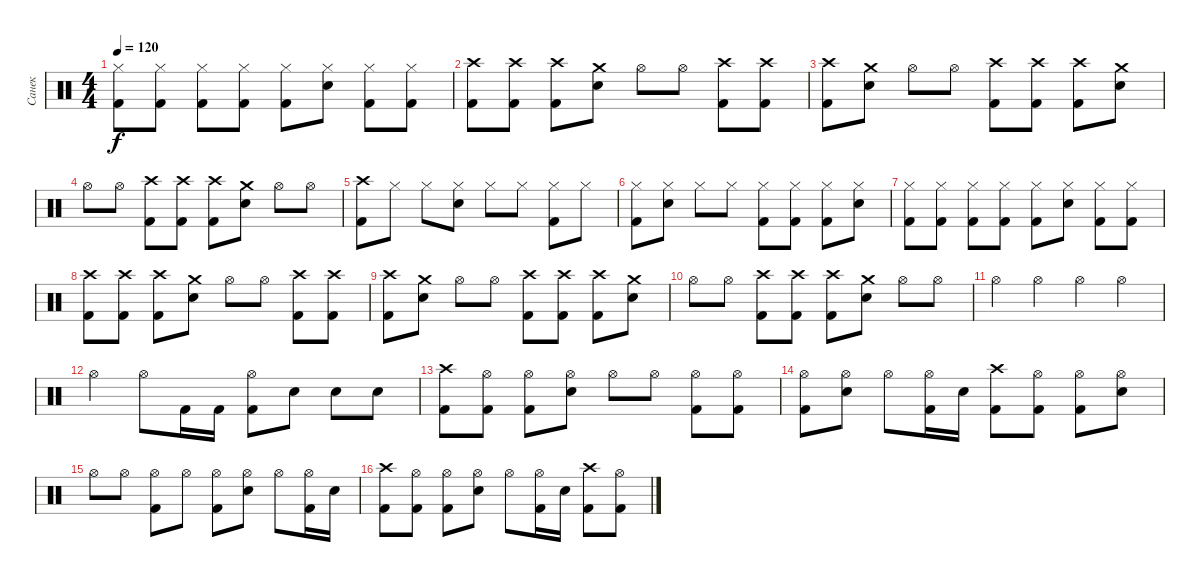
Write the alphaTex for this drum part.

\track ("Санек" "Санек") {instrument percussion}
\staff {score}
\articulation defaults
\ts (4 4)
\tempo 120
\clef neutral
\ks c
("Hi-Hat (closed)" "Kick (hit) 2").8{dy f} ("Hi-Hat (closed)" "Kick (hit) 2").8 ("Hi-Hat (closed)" "Kick (hit) 2").8 ("Hi-Hat (closed)" "Kick (hit) 2").8 ("Hi-Hat (closed)" "Kick (hit) 2").8 ("Hi-Hat (closed)" "Electric Snare (hit)").8 ("Hi-Hat (closed)" "Kick (hit) 2").8 ("Hi-Hat (closed)" "Kick (hit) 2").8 |
("Crash high (hit)" "Kick (hit) 2").8 ("Crash high (hit)" "Kick (hit) 2").8 ("Crash high (hit)" "Kick (hit) 2").8 ("Crash medium (hit)" "Electric Snare (hit)").8 "Hi-Hat (open)".8 "Hi-Hat (open)".8 ("Crash high (hit)" "Kick (hit) 2").8 ("Crash high (hit)" "Kick (hit) 2").8 |
("Crash high (hit)" "Kick (hit) 2").8 ("Crash medium (hit)" "Electric Snare (hit)").8 "Hi-Hat (open)".8 "Hi-Hat (open)".8 ("Crash high (hit)" "Kick (hit) 2").8 ("Crash high (hit)" "Kick (hit) 2").8 ("Crash high (hit)" "Kick (hit) 2").8 ("Crash medium (hit)" "Electric Snare (hit)").8 |
"Hi-Hat (open)".8 "Hi-Hat (open)".8 ("Crash high (hit)" "Kick (hit) 2").8 ("Crash high (hit)" "Kick (hit) 2").8 ("Crash high (hit)" "Kick (hit) 2").8 ("Crash medium (hit)" "Electric Snare (hit)").8 "Hi-Hat (open)".8 "Hi-Hat (open)".8 |
("Crash high (hit)" "Kick (hit) 2").8 "Hi-Hat (closed)".8 "Hi-Hat (closed)".8 ("Hi-Hat (closed)" "Electric Snare (hit)").8 "Hi-Hat (closed)".8 "Hi-Hat (closed)".8 ("Hi-Hat (closed)" "Kick (hit) 2").8 "Hi-Hat (closed)".8 |
("Hi-Hat (closed)" "Kick (hit) 2").8 ("Hi-Hat (closed)" "Electric Snare (hit)").8 "Hi-Hat (closed)".8 "Hi-Hat (closed)".8 ("Hi-Hat (closed)" "Kick (hit) 2").8 ("Hi-Hat (closed)" "Kick (hit) 2").8 ("Hi-Hat (closed)" "Kick (hit) 2").8 ("Hi-Hat (closed)" "Electric Snare (hit)").8 |
("Hi-Hat (closed)" "Kick (hit) 2").8 ("Hi-Hat (closed)" "Kick (hit) 2").8 ("Hi-Hat (closed)" "Kick (hit) 2").8 ("Hi-Hat (closed)" "Kick (hit) 2").8 ("Hi-Hat (closed)" "Kick (hit) 2").8 ("Hi-Hat (closed)" "Electric Snare (hit)").8 ("Hi-Hat (closed)" "Kick (hit) 2").8 ("Hi-Hat (closed)" "Kick (hit) 2").8 |
("Crash high (hit)" "Kick (hit) 2").8 ("Crash high (hit)" "Kick (hit) 2").8 ("Crash high (hit)" "Kick (hit) 2").8 ("Crash medium (hit)" "Electric Snare (hit)").8 "Hi-Hat (open)".8 "Hi-Hat (open)".8 ("Crash high (hit)" "Kick (hit) 2").8 ("Crash high (hit)" "Kick (hit) 2").8 |
("Crash high (hit)" "Kick (hit) 2").8 ("Crash medium (hit)" "Electric Snare (hit)").8 "Hi-Hat (open)".8 "Hi-Hat (open)".8 ("Crash high (hit)" "Kick (hit) 2").8 ("Crash high (hit)" "Kick (hit) 2").8 ("Crash high (hit)" "Kick (hit) 2").8 ("Crash medium (hit)" "Electric Snare (hit)").8 |
"Hi-Hat (open)".8 "Hi-Hat (open)".8 ("Crash high (hit)" "Kick (hit) 2").8 ("Crash high (hit)" "Kick (hit) 2").8 ("Crash high (hit)" "Kick (hit) 2").8 ("Crash medium (hit)" "Electric Snare (hit)").8 "Hi-Hat (open)".8 "Hi-Hat (open)".8 |
"Hi-Hat (open)".4 "Hi-Hat (open)".4 "Hi-Hat (open)".4 "Hi-Hat (open)".4 |
"Hi-Hat (open)".4 "Hi-Hat (open)".8 "Kick (hit) 2".16 "Kick (hit) 2".16 ("Hi-Hat (open)" "Kick (hit) 2").8 "Electric Snare (hit)".8 "Electric Snare (hit)".8 "Electric Snare (hit)".8 |
("Crash high (hit)" "Kick (hit) 2").8 ("Hi-Hat (open)" "Kick (hit) 2").8 ("Hi-Hat (open)" "Kick (hit) 2").8 ("Hi-Hat (open)" "Electric Snare (hit)").8 "Hi-Hat (open)".8 "Hi-Hat (open)".8 ("Hi-Hat (open)" "Kick (hit) 2").8 ("Hi-Hat (open)" "Kick (hit) 2").8 |
("Hi-Hat (open)" "Kick (hit) 2").8 ("Hi-Hat (open)" "Electric Snare (hit)").8 "Hi-Hat (open)".8 ("Hi-Hat (open)" "Kick (hit) 2").16 "Electric Snare (hit)".16 ("Crash high (hit)" "Kick (hit) 2").8 ("Hi-Hat (open)" "Kick (hit) 2").8 ("Hi-Hat (open)" "Kick (hit) 2").8 ("Hi-Hat (open)" "Electric Snare (hit)").8 |
"Hi-Hat (open)".8 "Hi-Hat (open)".8 ("Hi-Hat (open)" "Kick (hit) 2").8 "Hi-Hat (open)".8 ("Hi-Hat (open)" "Kick (hit) 2").8 ("Hi-Hat (open)" "Electric Snare (hit)").8 "Hi-Hat (open)".8 ("Hi-Hat (open)" "Kick (hit) 2").16 "Electric Snare (hit)".16 |
("Crash high (hit)" "Kick (hit) 2").8 ("Hi-Hat (open)" "Kick (hit) 2").8 ("Hi-Hat (open)" "Kick (hit) 2").8 ("Hi-Hat (open)" "Electric Snare (hit)").8 "Hi-Hat (open)".8 ("Hi-Hat (open)" "Kick (hit) 2").16 "Electric Snare (hit)".16 ("Crash high (hit)" "Kick (hit) 2").8 ("Hi-Hat (open)" "Kick (hit) 2").8
